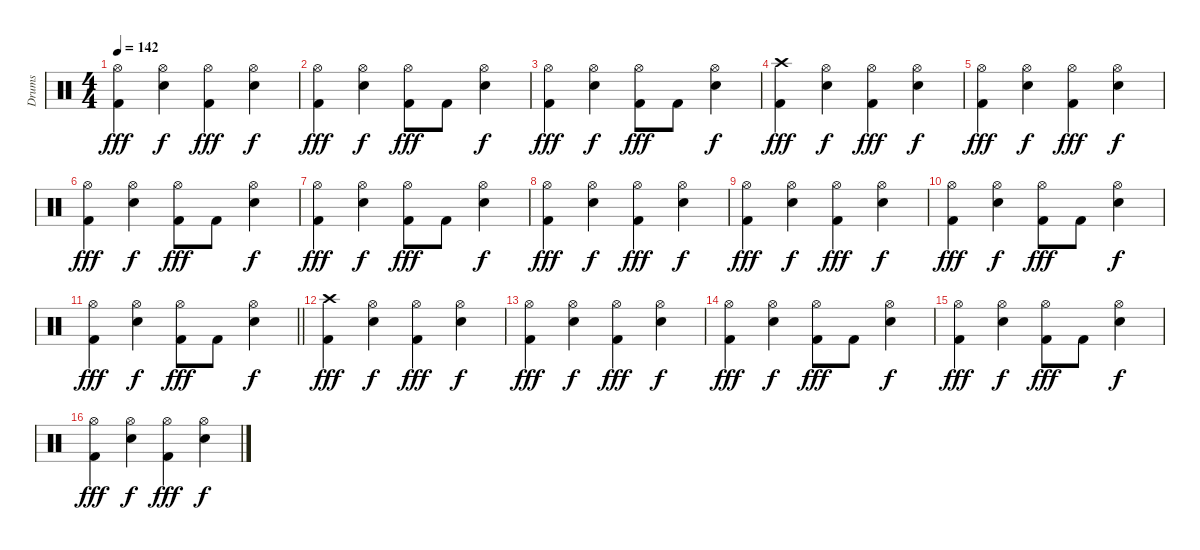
\track ("Drums" "Drums") {instrument percussion}
\staff {score}
\articulation defaults
\ts (4 4)
\tempo 142
\clef neutral
\ks c
("Hi-Hat (open)" "Kick (hit) 2").4{dy fff} ("Hi-Hat (open)" "Snare (hit) 2").4{dy f} ("Hi-Hat (open)" "Kick (hit) 2").4{dy fff} ("Hi-Hat (open)" "Snare (hit) 2").4{dy f} |
("Hi-Hat (open)" "Kick (hit) 2").4{dy fff} ("Hi-Hat (open)" "Snare (hit) 2").4{dy f} ("Hi-Hat (open)" "Kick (hit) 2").8{dy fff} "Kick (hit) 2".8 ("Hi-Hat (open)" "Snare (hit) 2").4{dy f} |
("Hi-Hat (open)" "Kick (hit) 2").4{dy fff} ("Hi-Hat (open)" "Snare (hit) 2").4{dy f} ("Hi-Hat (open)" "Kick (hit) 2").8{dy fff} "Kick (hit) 2".8 ("Hi-Hat (open)" "Snare (hit) 2").4{dy f} |
("Crash high (hit)" "Kick (hit) 2").4{dy fff} ("Hi-Hat (open)" "Snare (hit) 2").4{dy f} ("Hi-Hat (open)" "Kick (hit) 2").4{dy fff} ("Hi-Hat (open)" "Snare (hit) 2").4{dy f} |
("Hi-Hat (open)" "Kick (hit) 2").4{dy fff} ("Hi-Hat (open)" "Snare (hit) 2").4{dy f} ("Hi-Hat (open)" "Kick (hit) 2").4{dy fff} ("Hi-Hat (open)" "Snare (hit) 2").4{dy f} |
("Hi-Hat (open)" "Kick (hit) 2").4{dy fff} ("Hi-Hat (open)" "Snare (hit) 2").4{dy f} ("Hi-Hat (open)" "Kick (hit) 2").8{dy fff} "Kick (hit) 2".8 ("Hi-Hat (open)" "Snare (hit) 2").4{dy f} |
("Hi-Hat (open)" "Kick (hit) 2").4{dy fff} ("Hi-Hat (open)" "Snare (hit) 2").4{dy f} ("Hi-Hat (open)" "Kick (hit) 2").8{dy fff} "Kick (hit) 2".8 ("Hi-Hat (open)" "Snare (hit) 2").4{dy f} |
("Hi-Hat (open)" "Kick (hit) 2").4{dy fff} ("Hi-Hat (open)" "Snare (hit) 2").4{dy f} ("Hi-Hat (open)" "Kick (hit) 2").4{dy fff} ("Hi-Hat (open)" "Snare (hit) 2").4{dy f} |
("Hi-Hat (open)" "Kick (hit) 2").4{dy fff} ("Hi-Hat (open)" "Snare (hit) 2").4{dy f} ("Hi-Hat (open)" "Kick (hit) 2").4{dy fff} ("Hi-Hat (open)" "Snare (hit) 2").4{dy f} |
("Hi-Hat (open)" "Kick (hit) 2").4{dy fff} ("Hi-Hat (open)" "Snare (hit) 2").4{dy f} ("Hi-Hat (open)" "Kick (hit) 2").8{dy fff} "Kick (hit) 2".8 ("Hi-Hat (open)" "Snare (hit) 2").4{dy f} |
\barLineRight lightlight
("Hi-Hat (open)" "Kick (hit) 2").4{dy fff} ("Hi-Hat (open)" "Snare (hit) 2").4{dy f} ("Hi-Hat (open)" "Kick (hit) 2").8{dy fff} "Kick (hit) 2".8 ("Hi-Hat (open)" "Snare (hit) 2").4{dy f} |
("Crash high (hit)" "Kick (hit) 2").4{dy fff} ("Hi-Hat (open)" "Snare (hit) 2").4{dy f} ("Hi-Hat (open)" "Kick (hit) 2").4{dy fff} ("Hi-Hat (open)" "Snare (hit) 2").4{dy f} |
("Hi-Hat (open)" "Kick (hit) 2").4{dy fff} ("Hi-Hat (open)" "Snare (hit) 2").4{dy f} ("Hi-Hat (open)" "Kick (hit) 2").4{dy fff} ("Hi-Hat (open)" "Snare (hit) 2").4{dy f} |
("Hi-Hat (open)" "Kick (hit) 2").4{dy fff} ("Hi-Hat (open)" "Snare (hit) 2").4{dy f} ("Hi-Hat (open)" "Kick (hit) 2").8{dy fff} "Kick (hit) 2".8 ("Hi-Hat (open)" "Snare (hit) 2").4{dy f} |
("Hi-Hat (open)" "Kick (hit) 2").4{dy fff} ("Hi-Hat (open)" "Snare (hit) 2").4{dy f} ("Hi-Hat (open)" "Kick (hit) 2").8{dy fff} "Kick (hit) 2".8 ("Hi-Hat (open)" "Snare (hit) 2").4{dy f} |
("Hi-Hat (open)" "Kick (hit) 2").4{dy fff} ("Hi-Hat (open)" "Snare (hit) 2").4{dy f} ("Hi-Hat (open)" "Kick (hit) 2").4{dy fff} ("Hi-Hat (open)" "Snare (hit) 2").4{dy f}
